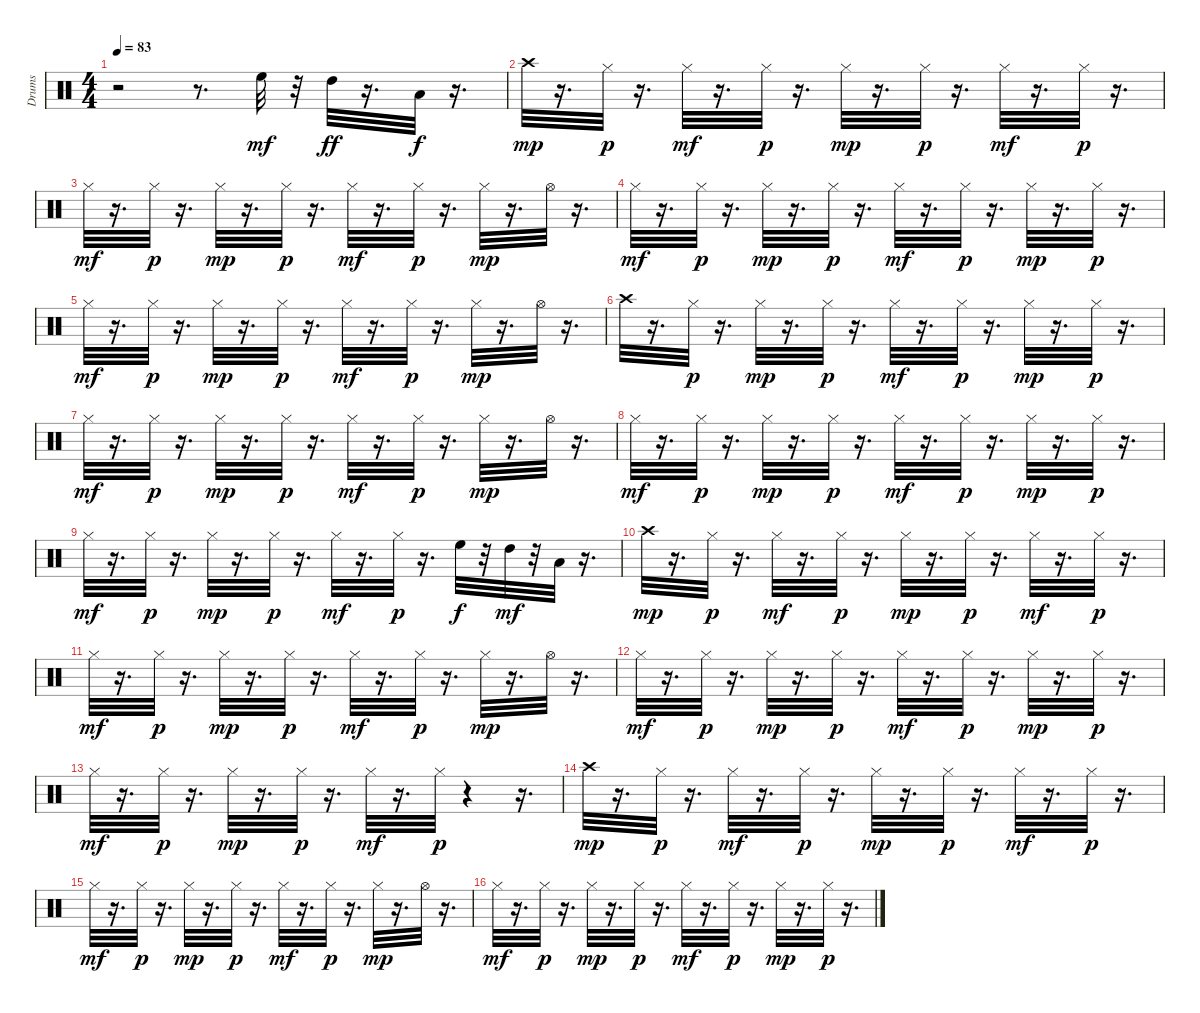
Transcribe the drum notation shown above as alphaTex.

\track ("Drums" "Drums") {instrument percussion}
\staff {score}
\articulation defaults
\ts (4 4)
\tempo 83
\clef neutral
\ks c
r.2{dy mp} r.8{d} "High Floor Tom (hit)".32{dy mf} r.32 "High Tom (hit)".32{dy ff} r.16{d} "Low Tom (hit)".32{dy f} r.16{d} |
"Crash high (hit)".32{dy mp} r.16{d} "Hi-Hat (closed)".32{dy p} r.16{d} "Hi-Hat (closed)".32{dy mf} r.16{d} "Hi-Hat (closed)".32{dy p} r.16{d} "Hi-Hat (closed)".32{dy mp} r.16{d} "Hi-Hat (closed)".32{dy p} r.16{d} "Hi-Hat (closed)".32{dy mf} r.16{d} "Hi-Hat (closed)".32{dy p} r.16{d} |
"Hi-Hat (closed)".32{dy mf} r.16{d} "Hi-Hat (closed)".32{dy p} r.16{d} "Hi-Hat (closed)".32{dy mp} r.16{d} "Hi-Hat (closed)".32{dy p} r.16{d} "Hi-Hat (closed)".32{dy mf} r.16{d} "Hi-Hat (closed)".32{dy p} r.16{d} "Hi-Hat (closed)".32{dy mp} r.16{d} "Hi-Hat (open)".32 r.16{d} |
"Hi-Hat (closed)".32{dy mf} r.16{d} "Hi-Hat (closed)".32{dy p} r.16{d} "Hi-Hat (closed)".32{dy mp} r.16{d} "Hi-Hat (closed)".32{dy p} r.16{d} "Hi-Hat (closed)".32{dy mf} r.16{d} "Hi-Hat (closed)".32{dy p} r.16{d} "Hi-Hat (closed)".32{dy mp} r.16{d} "Hi-Hat (closed)".32{dy p} r.16{d} |
"Hi-Hat (closed)".32{dy mf} r.16{d} "Hi-Hat (closed)".32{dy p} r.16{d} "Hi-Hat (closed)".32{dy mp} r.16{d} "Hi-Hat (closed)".32{dy p} r.16{d} "Hi-Hat (closed)".32{dy mf} r.16{d} "Hi-Hat (closed)".32{dy p} r.16{d} "Hi-Hat (closed)".32{dy mp} r.16{d} "Hi-Hat (open)".32 r.16{d} |
"Crash high (hit)".32 r.16{d} "Hi-Hat (closed)".32{dy p} r.16{d} "Hi-Hat (closed)".32{dy mp} r.16{d} "Hi-Hat (closed)".32{dy p} r.16{d} "Hi-Hat (closed)".32{dy mf} r.16{d} "Hi-Hat (closed)".32{dy p} r.16{d} "Hi-Hat (closed)".32{dy mp} r.16{d} "Hi-Hat (closed)".32{dy p} r.16{d} |
"Hi-Hat (closed)".32{dy mf} r.16{d} "Hi-Hat (closed)".32{dy p} r.16{d} "Hi-Hat (closed)".32{dy mp} r.16{d} "Hi-Hat (closed)".32{dy p} r.16{d} "Hi-Hat (closed)".32{dy mf} r.16{d} "Hi-Hat (closed)".32{dy p} r.16{d} "Hi-Hat (closed)".32{dy mp} r.16{d} "Hi-Hat (open)".32 r.16{d} |
"Hi-Hat (closed)".32{dy mf} r.16{d} "Hi-Hat (closed)".32{dy p} r.16{d} "Hi-Hat (closed)".32{dy mp} r.16{d} "Hi-Hat (closed)".32{dy p} r.16{d} "Hi-Hat (closed)".32{dy mf} r.16{d} "Hi-Hat (closed)".32{dy p} r.16{d} "Hi-Hat (closed)".32{dy mp} r.16{d} "Hi-Hat (closed)".32{dy p} r.16{d} |
"Hi-Hat (closed)".32{dy mf} r.16{d} "Hi-Hat (closed)".32{dy p} r.16{d} "Hi-Hat (closed)".32{dy mp} r.16{d} "Hi-Hat (closed)".32{dy p} r.16{d} "Hi-Hat (closed)".32{dy mf} r.16{d} "Hi-Hat (closed)".32{dy p} r.16{d} "High Floor Tom (hit)".32{dy f} r.32 "High Tom (hit)".32{dy mf} r.32 "Low Tom (hit)".32 r.16{d} |
"Crash high (hit)".32{dy mp} r.16{d} "Hi-Hat (closed)".32{dy p} r.16{d} "Hi-Hat (closed)".32{dy mf} r.16{d} "Hi-Hat (closed)".32{dy p} r.16{d} "Hi-Hat (closed)".32{dy mp} r.16{d} "Hi-Hat (closed)".32{dy p} r.16{d} "Hi-Hat (closed)".32{dy mf} r.16{d} "Hi-Hat (closed)".32{dy p} r.16{d} |
"Hi-Hat (closed)".32{dy mf} r.16{d} "Hi-Hat (closed)".32{dy p} r.16{d} "Hi-Hat (closed)".32{dy mp} r.16{d} "Hi-Hat (closed)".32{dy p} r.16{d} "Hi-Hat (closed)".32{dy mf} r.16{d} "Hi-Hat (closed)".32{dy p} r.16{d} "Hi-Hat (closed)".32{dy mp} r.16{d} "Hi-Hat (open)".32 r.16{d} |
"Hi-Hat (closed)".32{dy mf} r.16{d} "Hi-Hat (closed)".32{dy p} r.16{d} "Hi-Hat (closed)".32{dy mp} r.16{d} "Hi-Hat (closed)".32{dy p} r.16{d} "Hi-Hat (closed)".32{dy mf} r.16{d} "Hi-Hat (closed)".32{dy p} r.16{d} "Hi-Hat (closed)".32{dy mp} r.16{d} "Hi-Hat (closed)".32{dy p} r.16{d} |
"Hi-Hat (closed)".32{dy mf} r.16{d} "Hi-Hat (closed)".32{dy p} r.16{d} "Hi-Hat (closed)".32{dy mp} r.16{d} "Hi-Hat (closed)".32{dy p} r.16{d} "Hi-Hat (closed)".32{dy mf} r.16{d} "Hi-Hat (closed)".32{dy p} r.4 r.16{d} |
"Crash high (hit)".32{dy mp} r.16{d} "Hi-Hat (closed)".32{dy p} r.16{d} "Hi-Hat (closed)".32{dy mf} r.16{d} "Hi-Hat (closed)".32{dy p} r.16{d} "Hi-Hat (closed)".32{dy mp} r.16{d} "Hi-Hat (closed)".32{dy p} r.16{d} "Hi-Hat (closed)".32{dy mf} r.16{d} "Hi-Hat (closed)".32{dy p} r.16{d} |
"Hi-Hat (closed)".32{dy mf} r.16{d} "Hi-Hat (closed)".32{dy p} r.16{d} "Hi-Hat (closed)".32{dy mp} r.16{d} "Hi-Hat (closed)".32{dy p} r.16{d} "Hi-Hat (closed)".32{dy mf} r.16{d} "Hi-Hat (closed)".32{dy p} r.16{d} "Hi-Hat (closed)".32{dy mp} r.16{d} "Hi-Hat (open)".32 r.16{d} |
"Hi-Hat (closed)".32{dy mf} r.16{d} "Hi-Hat (closed)".32{dy p} r.16{d} "Hi-Hat (closed)".32{dy mp} r.16{d} "Hi-Hat (closed)".32{dy p} r.16{d} "Hi-Hat (closed)".32{dy mf} r.16{d} "Hi-Hat (closed)".32{dy p} r.16{d} "Hi-Hat (closed)".32{dy mp} r.16{d} "Hi-Hat (closed)".32{dy p} r.16{d}
